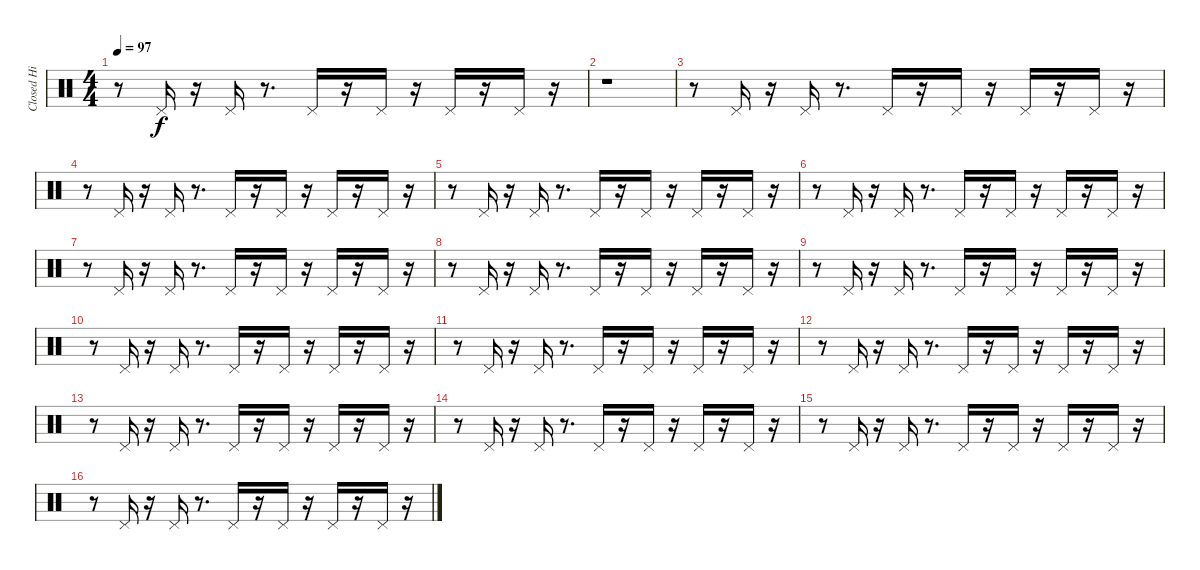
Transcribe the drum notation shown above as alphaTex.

\track ("Closed Hi Hat" "Closed Hi ") {instrument percussion}
\staff {score}
\articulation defaults
\ts (4 4)
\tempo 97
\clef neutral
\ks c
r.8{dy f} "Pedal Hi-Hat (hit)".16 r.16 "Pedal Hi-Hat (hit)".16 r.8{d} "Pedal Hi-Hat (hit)".16 r.16 "Pedal Hi-Hat (hit)".16 r.16 "Pedal Hi-Hat (hit)".16 r.16 "Pedal Hi-Hat (hit)".16 r.16 |
r.1 |
r.8 "Pedal Hi-Hat (hit)".16 r.16 "Pedal Hi-Hat (hit)".16 r.8{d} "Pedal Hi-Hat (hit)".16 r.16 "Pedal Hi-Hat (hit)".16 r.16 "Pedal Hi-Hat (hit)".16 r.16 "Pedal Hi-Hat (hit)".16 r.16 |
r.8 "Pedal Hi-Hat (hit)".16 r.16 "Pedal Hi-Hat (hit)".16 r.8{d} "Pedal Hi-Hat (hit)".16 r.16 "Pedal Hi-Hat (hit)".16 r.16 "Pedal Hi-Hat (hit)".16 r.16 "Pedal Hi-Hat (hit)".16 r.16 |
r.8 "Pedal Hi-Hat (hit)".16 r.16 "Pedal Hi-Hat (hit)".16 r.8{d} "Pedal Hi-Hat (hit)".16 r.16 "Pedal Hi-Hat (hit)".16 r.16 "Pedal Hi-Hat (hit)".16 r.16 "Pedal Hi-Hat (hit)".16 r.16 |
r.8 "Pedal Hi-Hat (hit)".16 r.16 "Pedal Hi-Hat (hit)".16 r.8{d} "Pedal Hi-Hat (hit)".16 r.16 "Pedal Hi-Hat (hit)".16 r.16 "Pedal Hi-Hat (hit)".16 r.16 "Pedal Hi-Hat (hit)".16 r.16 |
r.8 "Pedal Hi-Hat (hit)".16 r.16 "Pedal Hi-Hat (hit)".16 r.8{d} "Pedal Hi-Hat (hit)".16 r.16 "Pedal Hi-Hat (hit)".16 r.16 "Pedal Hi-Hat (hit)".16 r.16 "Pedal Hi-Hat (hit)".16 r.16 |
r.8 "Pedal Hi-Hat (hit)".16 r.16 "Pedal Hi-Hat (hit)".16 r.8{d} "Pedal Hi-Hat (hit)".16 r.16 "Pedal Hi-Hat (hit)".16 r.16 "Pedal Hi-Hat (hit)".16 r.16 "Pedal Hi-Hat (hit)".16 r.16 |
r.8 "Pedal Hi-Hat (hit)".16 r.16 "Pedal Hi-Hat (hit)".16 r.8{d} "Pedal Hi-Hat (hit)".16 r.16 "Pedal Hi-Hat (hit)".16 r.16 "Pedal Hi-Hat (hit)".16 r.16 "Pedal Hi-Hat (hit)".16 r.16 |
r.8 "Pedal Hi-Hat (hit)".16 r.16 "Pedal Hi-Hat (hit)".16 r.8{d} "Pedal Hi-Hat (hit)".16 r.16 "Pedal Hi-Hat (hit)".16 r.16 "Pedal Hi-Hat (hit)".16 r.16 "Pedal Hi-Hat (hit)".16 r.16 |
r.8 "Pedal Hi-Hat (hit)".16 r.16 "Pedal Hi-Hat (hit)".16 r.8{d} "Pedal Hi-Hat (hit)".16 r.16 "Pedal Hi-Hat (hit)".16 r.16 "Pedal Hi-Hat (hit)".16 r.16 "Pedal Hi-Hat (hit)".16 r.16 |
r.8 "Pedal Hi-Hat (hit)".16 r.16 "Pedal Hi-Hat (hit)".16 r.8{d} "Pedal Hi-Hat (hit)".16 r.16 "Pedal Hi-Hat (hit)".16 r.16 "Pedal Hi-Hat (hit)".16 r.16 "Pedal Hi-Hat (hit)".16 r.16 |
r.8 "Pedal Hi-Hat (hit)".16 r.16 "Pedal Hi-Hat (hit)".16 r.8{d} "Pedal Hi-Hat (hit)".16 r.16 "Pedal Hi-Hat (hit)".16 r.16 "Pedal Hi-Hat (hit)".16 r.16 "Pedal Hi-Hat (hit)".16 r.16 |
r.8 "Pedal Hi-Hat (hit)".16 r.16 "Pedal Hi-Hat (hit)".16 r.8{d} "Pedal Hi-Hat (hit)".16 r.16 "Pedal Hi-Hat (hit)".16 r.16 "Pedal Hi-Hat (hit)".16 r.16 "Pedal Hi-Hat (hit)".16 r.16 |
r.8 "Pedal Hi-Hat (hit)".16 r.16 "Pedal Hi-Hat (hit)".16 r.8{d} "Pedal Hi-Hat (hit)".16 r.16 "Pedal Hi-Hat (hit)".16 r.16 "Pedal Hi-Hat (hit)".16 r.16 "Pedal Hi-Hat (hit)".16 r.16 |
r.8 "Pedal Hi-Hat (hit)".16 r.16 "Pedal Hi-Hat (hit)".16 r.8{d} "Pedal Hi-Hat (hit)".16 r.16 "Pedal Hi-Hat (hit)".16 r.16 "Pedal Hi-Hat (hit)".16 r.16 "Pedal Hi-Hat (hit)".16 r.16
